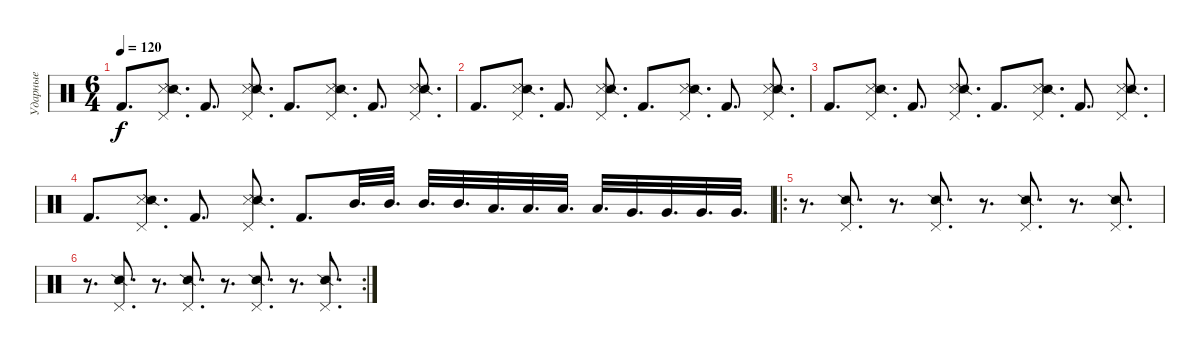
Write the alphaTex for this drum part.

\track ("Ударные" "Ударные") {instrument percussion}
\staff {score}
\articulation defaults
\ts (6 4)
\tempo 120
\clef neutral
\ks c "Kick (hit) 2".8{d dy f}
("Metronome (hit)" "Snare (side stick) 2" "Pedal Hi-Hat (hit)").8{d} "Kick (hit) 2".8{d} ("Metronome (hit)" "Snare (side stick) 2" "Pedal Hi-Hat (hit)").8{d} "Kick (hit) 2".8{d} ("Metronome (hit)" "Snare (side stick) 2" "Pedal Hi-Hat (hit)").8{d} "Kick (hit) 2".8{d} ("Metronome (hit)" "Snare (side stick) 2" "Pedal Hi-Hat (hit)").8{d} |
"Kick (hit) 2".8{d} ("Metronome (hit)" "Snare (side stick) 2" "Pedal Hi-Hat (hit)").8{d} "Kick (hit) 2".8{d} ("Metronome (hit)" "Snare (side stick) 2" "Pedal Hi-Hat (hit)").8{d} "Kick (hit) 2".8{d} ("Metronome (hit)" "Snare (side stick) 2" "Pedal Hi-Hat (hit)").8{d} "Kick (hit) 2".8{d} ("Metronome (hit)" "Snare (side stick) 2" "Pedal Hi-Hat (hit)").8{d} |
"Kick (hit) 2".8{d} ("Metronome (hit)" "Snare (side stick) 2" "Pedal Hi-Hat (hit)").8{d} "Kick (hit) 2".8{d} ("Metronome (hit)" "Snare (side stick) 2" "Pedal Hi-Hat (hit)").8{d} "Kick (hit) 2".8{d} ("Metronome (hit)" "Snare (side stick) 2" "Pedal Hi-Hat (hit)").8{d} "Kick (hit) 2".8{d} ("Metronome (hit)" "Snare (side stick) 2" "Pedal Hi-Hat (hit)").8{d} |
"Kick (hit) 2".8{d} ("Metronome (hit)" "Snare (side stick) 2" "Pedal Hi-Hat (hit)").8{d} "Kick (hit) 2".8{d} ("Metronome (hit)" "Snare (side stick) 2" "Pedal Hi-Hat (hit)").8{d} "Kick (hit) 2".8{d} "Mid Tom (hit)".32{d} "Mid Tom (hit)".32{d} "Mid Tom (hit)".32{d} "Mid Tom (hit)".32{d} "Low Tom (hit)".32{d} "Low Tom (hit)".32{d} "Low Tom (hit)".32{d} "Low Tom (hit)".32{d} "Very Low Tom (hit)".32{d} "Very Low Tom (hit)".32{d} "Very Low Tom (hit)".32{d} "Very Low Tom (hit)".32{d} |
\ro
r.8{d} ("Snare (side stick) 2" "Pedal Hi-Hat (hit)").8{d} r.8{d} ("Snare (side stick) 2" "Pedal Hi-Hat (hit)").8{d} r.8{d} ("Snare (side stick) 2" "Pedal Hi-Hat (hit)").8{d} r.8{d} ("Snare (side stick) 2" "Pedal Hi-Hat (hit)").8{d} |
\rc 2
r.8{d} ("Snare (side stick) 2" "Pedal Hi-Hat (hit)").8{d} r.8{d} ("Snare (side stick) 2" "Pedal Hi-Hat (hit)").8{d} r.8{d} ("Snare (side stick) 2" "Pedal Hi-Hat (hit)").8{d} r.8{d} ("Snare (side stick) 2" "Pedal Hi-Hat (hit)").8{d}
